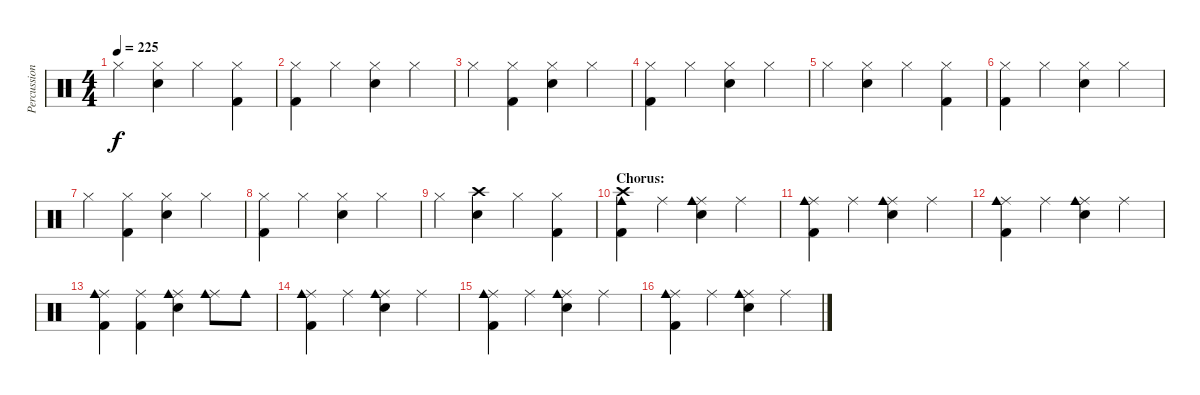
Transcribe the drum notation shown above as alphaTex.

\track ("Percussion" "Percussion") {instrument percussion}
\staff {score}
\articulation defaults
\ts (4 4)
\tempo 225
\clef neutral
\ks c "Hi-Hat (closed)".4{dy f}
("Hi-Hat (closed)" "Electric Snare (hit)").4 "Hi-Hat (closed)".4 ("Hi-Hat (closed)" "Kick (hit) 2").4 |
("Hi-Hat (closed)" "Kick (hit) 2").4 "Hi-Hat (closed)".4 ("Hi-Hat (closed)" "Electric Snare (hit)").4 "Hi-Hat (closed)".4 |
"Hi-Hat (closed)".4 ("Hi-Hat (closed)" "Kick (hit) 2").4 ("Hi-Hat (closed)" "Electric Snare (hit)").4 "Hi-Hat (closed)".4 |
("Hi-Hat (closed)" "Kick (hit) 2").4 "Hi-Hat (closed)".4 ("Hi-Hat (closed)" "Electric Snare (hit)").4 "Hi-Hat (closed)".4 |
"Hi-Hat (closed)".4 ("Hi-Hat (closed)" "Electric Snare (hit)").4 "Hi-Hat (closed)".4 ("Hi-Hat (closed)" "Kick (hit) 2").4 |
("Hi-Hat (closed)" "Kick (hit) 2").4 "Hi-Hat (closed)".4 ("Hi-Hat (closed)" "Electric Snare (hit)").4 "Hi-Hat (closed)".4 |
"Hi-Hat (closed)".4 ("Hi-Hat (closed)" "Kick (hit) 2").4 ("Hi-Hat (closed)" "Electric Snare (hit)").4 "Hi-Hat (closed)".4 |
("Hi-Hat (closed)" "Kick (hit) 2").4 "Hi-Hat (closed)".4 ("Hi-Hat (closed)" "Electric Snare (hit)").4 "Hi-Hat (closed)".4 |
"Hi-Hat (closed)".4 ("Crash high (hit)" "Electric Snare (hit)").4 "Hi-Hat (closed)".4 ("Hi-Hat (closed)" "Kick (hit) 2").4 |
\section ("" "Chorus:")
("Crash high (hit)" "Cowbell medium (hit)" "Kick (hit) 2").4 "Ride (middle)".4 ("Ride (middle)" "Cowbell medium (hit)" "Electric Snare (hit)").4 "Ride (middle)".4 |
("Ride (middle)" "Cowbell medium (hit)" "Kick (hit) 2").4 "Ride (middle)".4 ("Ride (middle)" "Cowbell medium (hit)" "Electric Snare (hit)").4 "Ride (middle)".4 |
("Ride (middle)" "Cowbell medium (hit)" "Kick (hit) 2").4 "Ride (middle)".4 ("Ride (middle)" "Cowbell medium (hit)" "Electric Snare (hit)").4 "Ride (middle)".4 |
("Ride (middle)" "Cowbell medium (hit)" "Kick (hit) 2").4 ("Ride (middle)" "Kick (hit) 2").4 ("Ride (middle)" "Cowbell medium (hit)" "Electric Snare (hit)").4 ("Ride (middle)" "Cowbell medium (hit)").8 "Cowbell medium (hit)".8 |
("Ride (middle)" "Cowbell medium (hit)" "Kick (hit) 2").4 "Ride (middle)".4 ("Ride (middle)" "Cowbell medium (hit)" "Electric Snare (hit)").4 "Ride (middle)".4 |
("Ride (middle)" "Cowbell medium (hit)" "Kick (hit) 2").4 "Ride (middle)".4 ("Ride (middle)" "Cowbell medium (hit)" "Electric Snare (hit)").4 "Ride (middle)".4 |
("Ride (middle)" "Cowbell medium (hit)" "Kick (hit) 2").4 "Ride (middle)".4 ("Ride (middle)" "Cowbell medium (hit)" "Electric Snare (hit)").4 "Ride (middle)".4
